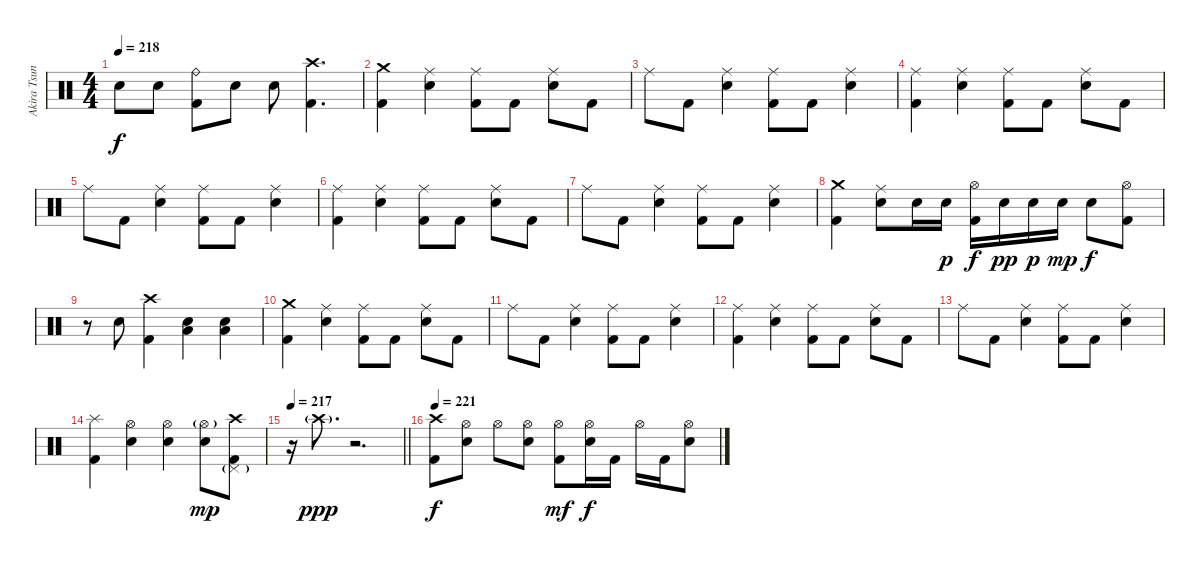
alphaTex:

\track ("Akira Tsuneoka" "Akira Tsun") {instrument percussion}
\staff {score}
\articulation defaults
\ts (4 4)
\tempo 218
\clef neutral
\ks c "Electric Snare (hit)".8{dy f} "Electric Snare (hit)".8
("Ride (bell)" "Kick (hit) 2").8 "Electric Snare (hit)".8 "Electric Snare (hit)".8 ("Crash high (hit)" "Kick (hit) 2").4{d} |
("Crash medium (hit)" "Kick (hit) 2").4 ("Ride (middle)" "Electric Snare (hit)").4 ("Ride (middle)" "Kick (hit) 2").8 "Kick (hit) 2".8 ("Ride (middle)" "Electric Snare (hit)").8 "Kick (hit) 2".8 |
"Ride (middle)".8 "Kick (hit) 2".8 ("Ride (middle)" "Electric Snare (hit)").4 ("Ride (middle)" "Kick (hit) 2").8 "Kick (hit) 2".8 ("Ride (middle)" "Electric Snare (hit)").4 |
("Ride (middle)" "Kick (hit) 2").4 ("Ride (middle)" "Electric Snare (hit)").4 ("Ride (middle)" "Kick (hit) 2").8 "Kick (hit) 2".8 ("Ride (middle)" "Electric Snare (hit)").8 "Kick (hit) 2".8 |
"Ride (middle)".8 "Kick (hit) 2".8 ("Ride (middle)" "Electric Snare (hit)").4 ("Ride (middle)" "Kick (hit) 2").8 "Kick (hit) 2".8 ("Ride (middle)" "Electric Snare (hit)").4 |
("Ride (middle)" "Kick (hit) 2").4 ("Ride (middle)" "Electric Snare (hit)").4 ("Ride (middle)" "Kick (hit) 2").8 "Kick (hit) 2".8 ("Ride (middle)" "Electric Snare (hit)").8 "Kick (hit) 2".8 |
"Ride (middle)".8 "Kick (hit) 2".8 ("Ride (middle)" "Electric Snare (hit)").4 ("Ride (middle)" "Kick (hit) 2").8 "Kick (hit) 2".8 ("Ride (middle)" "Electric Snare (hit)").4 |
("Crash medium (hit)" "Kick (hit) 2").4 ("Ride (middle)" "Electric Snare (hit)").8 "Electric Snare (hit)".16 "Electric Snare (hit)".16{dy p} ("Hi-Hat (open)" "Kick (hit) 2").16{dy f} "Electric Snare (hit)".16{dy pp} "Electric Snare (hit)".16{dy p} "Electric Snare (hit)".16{dy mp} "Electric Snare (hit)".8{dy f} ("Hi-Hat (open)" "Kick (hit) 2").8 |
r.8 "Electric Snare (hit)".8 ("Crash high (hit)" "Kick (hit) 2").4 ("Electric Snare (hit)" "Low Floor Tom (hit)").4 ("Electric Snare (hit)" "Low Floor Tom (hit)").4 |
("Crash medium (hit)" "Kick (hit) 2").4 ("Ride (middle)" "Electric Snare (hit)").4 ("Ride (middle)" "Kick (hit) 2").8 "Kick (hit) 2".8 ("Ride (middle)" "Electric Snare (hit)").8 "Kick (hit) 2".8 |
"Ride (middle)".8 "Kick (hit) 2".8 ("Ride (middle)" "Electric Snare (hit)").4 ("Ride (middle)" "Kick (hit) 2").8 "Kick (hit) 2".8 ("Ride (middle)" "Electric Snare (hit)").4 |
("Ride (middle)" "Kick (hit) 2").4 ("Ride (middle)" "Electric Snare (hit)").4 ("Ride (middle)" "Kick (hit) 2").8 "Kick (hit) 2".8 ("Ride (middle)" "Electric Snare (hit)").8 "Kick (hit) 2".8 |
"Ride (middle)".8 "Kick (hit) 2".8 ("Ride (middle)" "Electric Snare (hit)").4 ("Ride (middle)" "Kick (hit) 2").8 "Kick (hit) 2".8 ("Ride (middle)" "Electric Snare (hit)").4 |
("Splash (hit)" "Kick (hit) 2").4 ("Hi-Hat (open)" "Electric Snare (hit)").4 ("Hi-Hat (open)" "Electric Snare (hit)").4 ("Hi-Hat (open)"{g} "Electric Snare (hit)").8{dy mp} ("Pedal Hi-Hat (hit)"{g} "Crash high (hit)" "Kick (hit) 2").8 |
\tempo 217
\barLineRight lightlight
r.16 "Crash high (hit)"{g}.8{d dy ppp} r.2{d} |
\section ("" "")
\tempo 221
("Crash high (hit)" "Kick (hit) 2").8{dy f} ("Hi-Hat (open)" "Electric Snare (hit)").8 "Hi-Hat (open)".8 ("Hi-Hat (open)" "Electric Snare (hit)").8 ("Hi-Hat (open)" "Kick (hit) 2").8{dy mf} ("Hi-Hat (open)" "Electric Snare (hit)").16{dy f} "Kick (hit) 2".16 "Hi-Hat (open)".16 "Kick (hit) 2".16 ("Hi-Hat (open)" "Electric Snare (hit)").8
